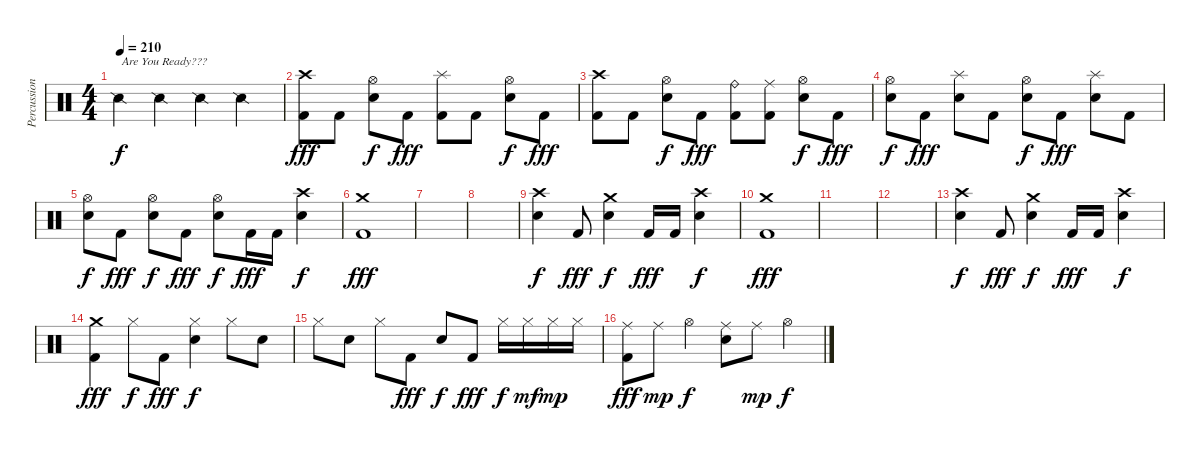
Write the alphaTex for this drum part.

\track ("Percussion" "Percussion") {instrument percussion}
\staff {score}
\articulation defaults
\ts (4 4)
\tempo 210
\clef neutral
\ks c "Snare (side stick) 2".4{txt "Are You Ready???" dy f} "Snare (side stick) 2".4 "Snare (side stick) 2".4 "Snare (side stick) 2".4
|
("Crash high (hit)" "Kick (hit) 2").8{dy fff} "Kick (hit) 2".8 ("Hi-Hat (open)" "Snare (hit) 2").8{dy f} "Kick (hit) 2".8{dy fff} ("Splash (hit)" "Kick (hit) 2").8 "Kick (hit) 2".8 ("Hi-Hat (open)" "Snare (hit) 2").8{dy f} "Kick (hit) 2".8{dy fff} |
("Crash high (hit)" "Kick (hit) 2").8 "Kick (hit) 2".8 ("Hi-Hat (open)" "Snare (hit) 2").8{dy f} "Kick (hit) 2".8{dy fff} ("Ride (bell)" "Kick (hit) 2").8 ("Ride (middle)" "Kick (hit) 2").8 ("Hi-Hat (open)" "Snare (hit) 2").8{dy f} "Kick (hit) 2".8{dy fff} |
("Hi-Hat (open)" "Snare (hit) 2").8{dy f} "Kick (hit) 2".8{dy fff} ("Splash (hit)" "Snare (hit) 2").8 "Kick (hit) 2".8 ("Hi-Hat (open)" "Snare (hit) 2").8{dy f} "Kick (hit) 2".8{dy fff} ("Splash (hit)" "Snare (hit) 2").8 "Kick (hit) 2".8 |
("Hi-Hat (open)" "Snare (hit) 2").8{dy f} "Kick (hit) 2".8{dy fff} ("Hi-Hat (open)" "Snare (hit) 2").8{dy f} "Kick (hit) 2".8{dy fff} ("Hi-Hat (open)" "Snare (hit) 2").8{dy f} "Kick (hit) 2".16{dy fff} "Kick (hit) 2".16 ("Crash high (hit)" "Snare (hit) 2").4{dy f} |
("Crash medium (hit)" "Kick (hit) 2").1{dy fff} |
|
|
("Crash high (hit)" "Snare (hit) 2").4{dy f} "Kick (hit) 2".8{dy fff} ("Crash medium (hit)" "Snare (hit) 2").4{dy f} "Kick (hit) 2".16{dy fff} "Kick (hit) 2".16 ("Crash high (hit)" "Snare (hit) 2").4{dy f} |
("Crash medium (hit)" "Kick (hit) 2").1{dy fff} |
|
|
("Crash high (hit)" "Snare (hit) 2").4{dy f} "Kick (hit) 2".8{dy fff} ("Crash medium (hit)" "Snare (hit) 2").4{dy f} "Kick (hit) 2".16{dy fff} "Kick (hit) 2".16 ("Crash high (hit)" "Snare (hit) 2").4{dy f} |
("Crash medium (hit)" "Kick (hit) 2").4{dy fff} "Hi-Hat (closed)".8{dy f} "Kick (hit) 2".8{dy fff} ("Hi-Hat (closed)" "Snare (hit) 2").4{dy f} "Hi-Hat (closed)".8 "Snare (hit) 2".8 |
"Hi-Hat (closed)".8 "Snare (hit) 2".8 "Hi-Hat (closed)".8 "Kick (hit) 2".8{dy fff} "Snare (hit) 2".8{dy f} "Kick (hit) 2".8{dy fff} "Hi-Hat (closed)".16{dy f} "Hi-Hat (closed)".16{dy mf} "Hi-Hat (closed)".16{dy mp} "Hi-Hat (closed)".16 |
("Ride (middle)" "Kick (hit) 2").8{dy fff} "Ride (middle)".8{dy mp} "Hi-Hat (open)".4{dy f} ("Ride (middle)" "Snare (hit) 2").8 "Ride (middle)".8{dy mp} "Hi-Hat (open)".4{dy f}
